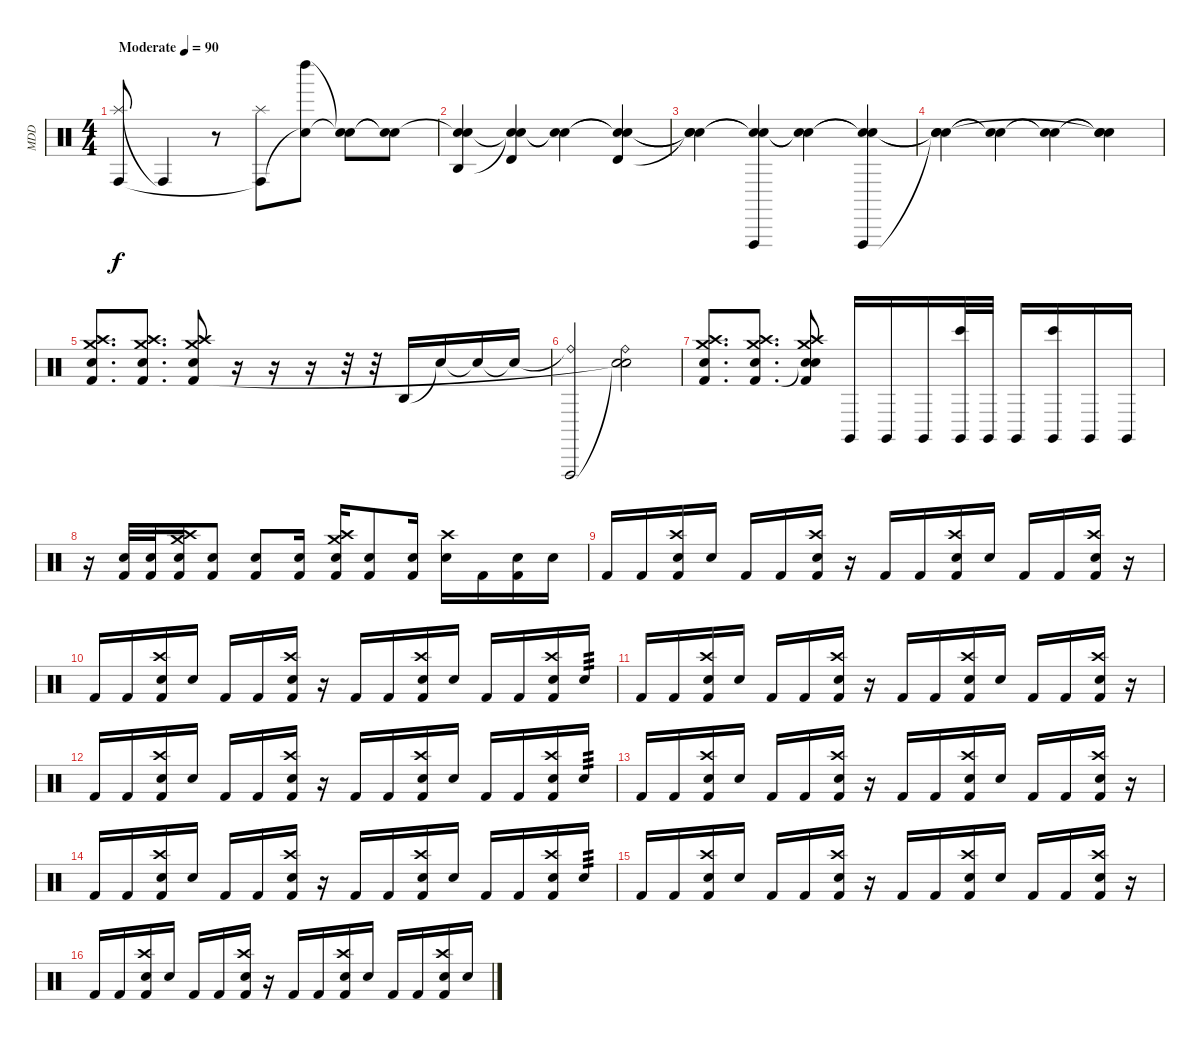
\track ("MDD" "MDD") {instrument percussion}
\staff {score}
\articulation defaults
\ts (4 4)
\tempo (90 "Moderate")
\clef neutral
\ks c
("Splash (hit)" "Conga high (hit)").8{dy f} "Conga high (hit)"{t}.4 r.8 ("Splash (hit)" "Conga high (hit)"{t}).8 ("Left Maraca (hit)" "Snare (hit)"{t}).8 ("Snare (hit)"{t} "Snare (hit)"{t}).8 ("Snare (hit)"{t} "Snare (hit)"{t}).8 |
("Snare (hit)"{t} "Agogo high (hit)" "Snare (hit)").4 ("Snare (hit)"{t} "Snare (hit)"{t} "Timbale high (hit)").4 ("Snare (hit)"{t} "Snare (hit)"{t}).4 ("Snare (hit)"{t} "Snare (hit)"{t} "Timbale high (hit)").4 |
("Snare (hit)"{t} "Snare (hit)"{t} "Snare (hit)"{t}).4 ("Snare (hit)"{t} "Snare (hit)"{t} "Vibraslap (hit)").4 ("Snare (hit)"{t} "Snare (hit)"{t}).4 ("Snare (hit)"{t} "Snare (hit)"{t} "Vibraslap (hit)").4 |
("Snare (hit)"{t} "Snare (hit)"{t} "Snare (hit)"{t}).4 ("Snare (hit)"{t} "Snare (hit)"{t}).4 ("Snare (hit)"{t} "Snare (hit)"{t}).4 ("Snare (hit)"{t} "Snare (hit)"{t} "Snare (hit)"{t}).4 |
("Crash medium (hit)" "Crash high (hit)" "Kick (hit) 2" "Snare (hit) 2").8{d} ("Crash medium (hit)" "Crash high (hit)" "Kick (hit) 2" "Snare (hit) 2").8{d} ("Crash medium (hit)" "Crash high (hit)" "Kick (hit) 2" "Snare (hit) 2").8 r.16 r.16 r.16 r.32 r.32 "Agogo high (hit)".16 "Snare (hit)"{t}.16 "Snare (hit)"{t}.16 "Snare (hit)"{t}.16 |
("Ride (bell)"{t} "Vibraslap (hit)").2 ("Ride (bell)" "Snare (hit)"{t} "Snare (hit)"{t}).2 |
("Crash medium (hit)" "Crash high (hit)" "Kick (hit) 2" "Snare (hit) 2").8{d} ("Crash medium (hit)" "Crash high (hit)" "Kick (hit) 2" "Snare (hit) 2").8{d} ("Crash medium (hit)" "Crash high (hit)" "Snare (hit)"{t} "Kick (hit) 2" "Snare (hit) 2").8 "Claves (hit)".16 "Claves (hit)".16 "Claves (hit)".16 ("Claves (hit)" "Bongo High (hit)").32 "Claves (hit)".32 "Claves (hit)".16 ("Claves (hit)" "Bongo High (hit)").16 "Claves (hit)".16 "Claves (hit)".16 |
r.16 ("Snare (hit) 2" "Kick (hit) 2").32 ("Kick (hit) 2" "Snare (hit) 2").32 ("Crash high (hit)" "Crash medium (hit)" "Snare (hit) 2" "Kick (hit) 2").16 ("Kick (hit) 2" "Snare (hit) 2").8 ("Snare (hit) 2" "Kick (hit) 2").8 ("Snare (hit) 2" "Kick (hit) 2").16 ("Crash high (hit)" "Crash medium (hit)" "Kick (hit) 2" "Snare (hit) 2").16 ("Kick (hit) 2" "Snare (hit) 2").8 ("Snare (hit) 2" "Kick (hit) 2").16 ("Crash high (hit)" "Snare (hit) 2").16 "Kick (hit) 2".16 ("Snare (hit) 2" "Kick (hit) 2").16 "Snare (hit) 2".16 |
"Kick (hit) 2".16 "Kick (hit) 2".16 ("Crash high (hit)" "Kick (hit) 2" "Snare (hit) 2").16 "Snare (hit) 2".16 "Kick (hit) 2".16 "Kick (hit) 2".16 ("Crash high (hit)" "Kick (hit) 2" "Snare (hit) 2").16 r.16 "Kick (hit) 2".16 "Kick (hit) 2".16 ("Crash high (hit)" "Kick (hit) 2" "Snare (hit) 2").16 "Snare (hit) 2".16 "Kick (hit) 2".16 "Kick (hit) 2".16 ("Crash high (hit)" "Kick (hit) 2" "Snare (hit) 2").16 r.16 |
"Kick (hit) 2".16 "Kick (hit) 2".16 ("Crash high (hit)" "Kick (hit) 2" "Snare (hit) 2").16 "Snare (hit) 2".16 "Kick (hit) 2".16 "Kick (hit) 2".16 ("Crash high (hit)" "Kick (hit) 2" "Snare (hit) 2").16 r.16 "Kick (hit) 2".16 "Kick (hit) 2".16 ("Crash high (hit)" "Kick (hit) 2" "Snare (hit) 2").16 "Snare (hit) 2".16 "Kick (hit) 2".16 "Kick (hit) 2".16 ("Crash high (hit)" "Kick (hit) 2" "Snare (hit) 2").16 "Snare (hit) 2".16{tp 3} |
"Kick (hit) 2".16 "Kick (hit) 2".16 ("Crash high (hit)" "Kick (hit) 2" "Snare (hit) 2").16 "Snare (hit) 2".16 "Kick (hit) 2".16 "Kick (hit) 2".16 ("Crash high (hit)" "Kick (hit) 2" "Snare (hit) 2").16 r.16 "Kick (hit) 2".16 "Kick (hit) 2".16 ("Crash high (hit)" "Kick (hit) 2" "Snare (hit) 2").16 "Snare (hit) 2".16 "Kick (hit) 2".16 "Kick (hit) 2".16 ("Crash high (hit)" "Kick (hit) 2" "Snare (hit) 2").16 r.16 |
"Kick (hit) 2".16 "Kick (hit) 2".16 ("Crash high (hit)" "Kick (hit) 2" "Snare (hit) 2").16 "Snare (hit) 2".16 "Kick (hit) 2".16 "Kick (hit) 2".16 ("Crash high (hit)" "Kick (hit) 2" "Snare (hit) 2").16 r.16 "Kick (hit) 2".16 "Kick (hit) 2".16 ("Crash high (hit)" "Kick (hit) 2" "Snare (hit) 2").16 "Snare (hit) 2".16 "Kick (hit) 2".16 "Kick (hit) 2".16 ("Crash high (hit)" "Kick (hit) 2" "Snare (hit) 2").16 "Snare (hit) 2".16{tp 3} |
"Kick (hit) 2".16 "Kick (hit) 2".16 ("Crash high (hit)" "Kick (hit) 2" "Snare (hit) 2").16 "Snare (hit) 2".16 "Kick (hit) 2".16 "Kick (hit) 2".16 ("Crash high (hit)" "Kick (hit) 2" "Snare (hit) 2").16 r.16 "Kick (hit) 2".16 "Kick (hit) 2".16 ("Crash high (hit)" "Kick (hit) 2" "Snare (hit) 2").16 "Snare (hit) 2".16 "Kick (hit) 2".16 "Kick (hit) 2".16 ("Crash high (hit)" "Kick (hit) 2" "Snare (hit) 2").16 r.16 |
"Kick (hit) 2".16 "Kick (hit) 2".16 ("Crash high (hit)" "Kick (hit) 2" "Snare (hit) 2").16 "Snare (hit) 2".16 "Kick (hit) 2".16 "Kick (hit) 2".16 ("Crash high (hit)" "Kick (hit) 2" "Snare (hit) 2").16 r.16 "Kick (hit) 2".16 "Kick (hit) 2".16 ("Crash high (hit)" "Kick (hit) 2" "Snare (hit) 2").16 "Snare (hit) 2".16 "Kick (hit) 2".16 "Kick (hit) 2".16 ("Crash high (hit)" "Kick (hit) 2" "Snare (hit) 2").16 "Snare (hit) 2".16{tp 3} |
"Kick (hit) 2".16 "Kick (hit) 2".16 ("Crash high (hit)" "Kick (hit) 2" "Snare (hit) 2").16 "Snare (hit) 2".16 "Kick (hit) 2".16 "Kick (hit) 2".16 ("Crash high (hit)" "Kick (hit) 2" "Snare (hit) 2").16 r.16 "Kick (hit) 2".16 "Kick (hit) 2".16 ("Crash high (hit)" "Kick (hit) 2" "Snare (hit) 2").16 "Snare (hit) 2".16 "Kick (hit) 2".16 "Kick (hit) 2".16 ("Crash high (hit)" "Kick (hit) 2" "Snare (hit) 2").16 r.16 |
"Kick (hit) 2".16 "Kick (hit) 2".16 ("Crash high (hit)" "Kick (hit) 2" "Snare (hit) 2").16 "Snare (hit) 2".16 "Kick (hit) 2".16 "Kick (hit) 2".16 ("Crash high (hit)" "Kick (hit) 2" "Snare (hit) 2").16 r.16 "Kick (hit) 2".16 "Kick (hit) 2".16 ("Crash high (hit)" "Kick (hit) 2" "Snare (hit) 2").16 "Snare (hit) 2".16 "Kick (hit) 2".16 "Kick (hit) 2".16 ("Crash high (hit)" "Kick (hit) 2" "Snare (hit) 2").16 "Snare (hit) 2".16
